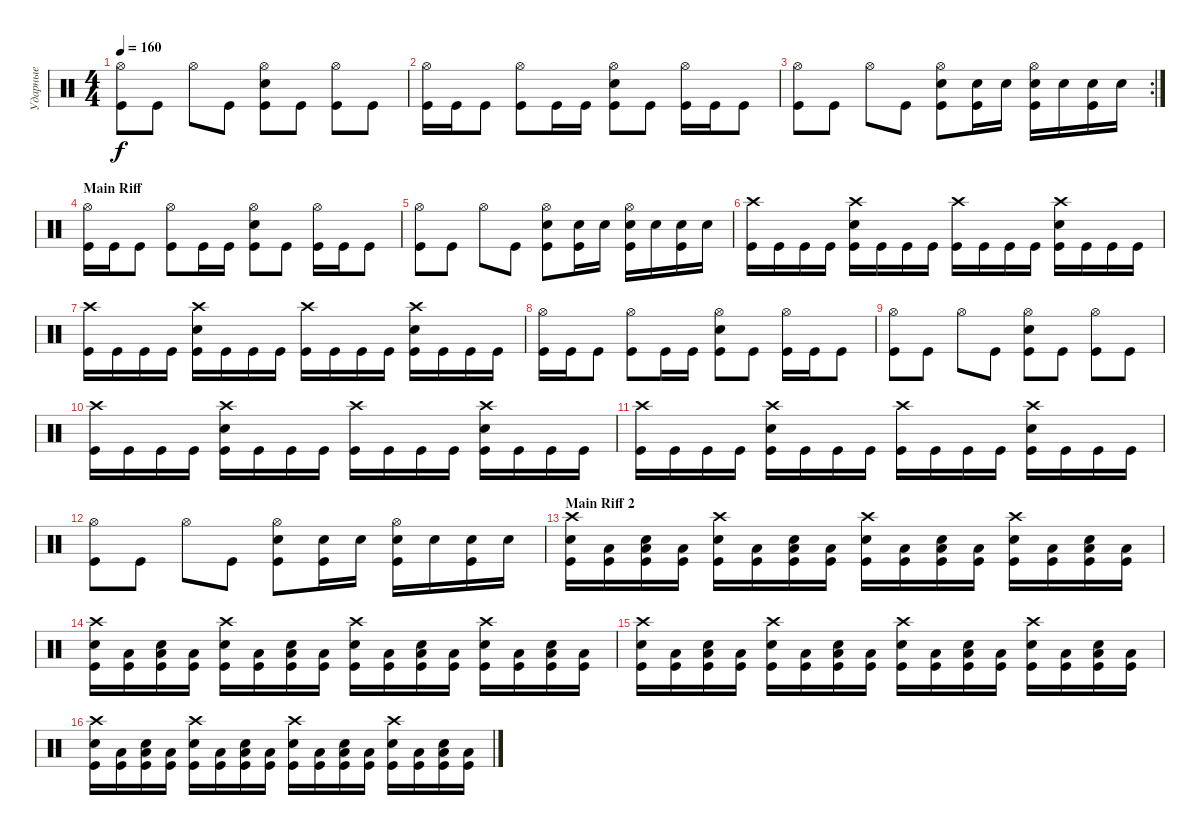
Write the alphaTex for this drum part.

\track ("Ударные" "Ударные") {instrument percussion}
\staff {score}
\articulation defaults
\ts (4 4)
\tempo 160
\clef neutral
\ks c
("Hi-Hat (open)" "Kick (hit)").8{dy f} "Kick (hit)".8 "Hi-Hat (open)".8 "Kick (hit)".8 ("Hi-Hat (open)" "Snare (hit) 2" "Kick (hit)").8 "Kick (hit)".8 ("Hi-Hat (open)" "Kick (hit)").8 "Kick (hit)".8 |
("Hi-Hat (open)" "Kick (hit)").16 "Kick (hit)".16 "Kick (hit)".8 ("Hi-Hat (open)" "Kick (hit)").8 "Kick (hit)".16 "Kick (hit)".16 ("Hi-Hat (open)" "Snare (hit) 2" "Kick (hit)").8 "Kick (hit)".8 ("Hi-Hat (open)" "Kick (hit)").16 "Kick (hit)".16 "Kick (hit)".8 |
\rc 2
("Hi-Hat (open)" "Kick (hit)").8 "Kick (hit)".8 "Hi-Hat (open)".8 "Kick (hit)".8 ("Hi-Hat (open)" "Snare (hit) 2" "Kick (hit)").8 ("Snare (hit) 2" "Kick (hit)").16 "Snare (hit) 2".16 ("Hi-Hat (open)" "Snare (hit) 2" "Kick (hit)").16 "Snare (hit) 2".16 ("Snare (hit) 2" "Kick (hit)").16 "Snare (hit) 2".16 |
\section ("" "Main Riff")
("Hi-Hat (open)" "Kick (hit)").16 "Kick (hit)".16 "Kick (hit)".8 ("Hi-Hat (open)" "Kick (hit)").8 "Kick (hit)".16 "Kick (hit)".16 ("Hi-Hat (open)" "Snare (hit) 2" "Kick (hit)").8 "Kick (hit)".8 ("Hi-Hat (open)" "Kick (hit)").16 "Kick (hit)".16 "Kick (hit)".8 |
("Hi-Hat (open)" "Kick (hit)").8 "Kick (hit)".8 "Hi-Hat (open)".8 "Kick (hit)".8 ("Hi-Hat (open)" "Snare (hit) 2" "Kick (hit)").8 ("Snare (hit) 2" "Kick (hit)").16 "Snare (hit) 2".16 ("Hi-Hat (open)" "Snare (hit) 2" "Kick (hit)").16 "Snare (hit) 2".16 ("Snare (hit) 2" "Kick (hit)").16 "Snare (hit) 2".16 |
("Crash high (hit)" "Kick (hit)").16 "Kick (hit)".16 "Kick (hit)".16 "Kick (hit)".16 ("Crash high (hit)" "Snare (hit) 2" "Kick (hit)").16 "Kick (hit)".16 "Kick (hit)".16 "Kick (hit)".16 ("Crash high (hit)" "Kick (hit)").16 "Kick (hit)".16 "Kick (hit)".16 "Kick (hit)".16 ("Crash high (hit)" "Snare (hit) 2" "Kick (hit)").16 "Kick (hit)".16 "Kick (hit)".16 "Kick (hit)".16 |
("Crash high (hit)" "Kick (hit)").16 "Kick (hit)".16 "Kick (hit)".16 "Kick (hit)".16 ("Crash high (hit)" "Snare (hit) 2" "Kick (hit)").16 "Kick (hit)".16 "Kick (hit)".16 "Kick (hit)".16 ("Crash high (hit)" "Kick (hit)").16 "Kick (hit)".16 "Kick (hit)".16 "Kick (hit)".16 ("Crash high (hit)" "Snare (hit) 2" "Kick (hit)").16 "Kick (hit)".16 "Kick (hit)".16 "Kick (hit)".16 |
("Hi-Hat (open)" "Kick (hit)").16 "Kick (hit)".16 "Kick (hit)".8 ("Hi-Hat (open)" "Kick (hit)").8 "Kick (hit)".16 "Kick (hit)".16 ("Hi-Hat (open)" "Snare (hit) 2" "Kick (hit)").8 "Kick (hit)".8 ("Hi-Hat (open)" "Kick (hit)").16 "Kick (hit)".16 "Kick (hit)".8 |
("Hi-Hat (open)" "Kick (hit)").8 "Kick (hit)".8 "Hi-Hat (open)".8 "Kick (hit)".8 ("Hi-Hat (open)" "Snare (hit) 2" "Kick (hit)").8 "Kick (hit)".8 ("Hi-Hat (open)" "Kick (hit)").8 "Kick (hit)".8 |
("Crash high (hit)" "Kick (hit)").16 "Kick (hit)".16 "Kick (hit)".16 "Kick (hit)".16 ("Crash high (hit)" "Snare (hit) 2" "Kick (hit)").16 "Kick (hit)".16 "Kick (hit)".16 "Kick (hit)".16 ("Crash high (hit)" "Kick (hit)").16 "Kick (hit)".16 "Kick (hit)".16 "Kick (hit)".16 ("Crash high (hit)" "Snare (hit) 2" "Kick (hit)").16 "Kick (hit)".16 "Kick (hit)".16 "Kick (hit)".16 |
("Crash high (hit)" "Kick (hit)").16 "Kick (hit)".16 "Kick (hit)".16 "Kick (hit)".16 ("Crash high (hit)" "Snare (hit) 2" "Kick (hit)").16 "Kick (hit)".16 "Kick (hit)".16 "Kick (hit)".16 ("Crash high (hit)" "Kick (hit)").16 "Kick (hit)".16 "Kick (hit)".16 "Kick (hit)".16 ("Crash high (hit)" "Snare (hit) 2" "Kick (hit)").16 "Kick (hit)".16 "Kick (hit)".16 "Kick (hit)".16 |
("Hi-Hat (open)" "Kick (hit)").8 "Kick (hit)".8 "Hi-Hat (open)".8 "Kick (hit)".8 ("Hi-Hat (open)" "Snare (hit) 2" "Kick (hit)").8 ("Snare (hit) 2" "Kick (hit)").16 "Snare (hit) 2".16 ("Hi-Hat (open)" "Snare (hit) 2" "Kick (hit)").16 "Snare (hit) 2".16 ("Snare (hit) 2" "Kick (hit)").16 "Snare (hit) 2".16 |
\section ("" "Main Riff 2")
("Crash high (hit)" "Snare (hit) 2" "Kick (hit)").16 ("Low Tom (hit)" "Kick (hit)").16 ("Low Tom (hit)" "Snare (hit) 2" "Kick (hit)").16 ("Low Tom (hit)" "Kick (hit)").16 ("Crash high (hit)" "Snare (hit) 2" "Kick (hit)").16 ("Low Tom (hit)" "Kick (hit)").16 ("Low Tom (hit)" "Snare (hit) 2" "Kick (hit)").16 ("Low Tom (hit)" "Kick (hit)").16 ("Crash high (hit)" "Snare (hit) 2" "Kick (hit)").16 ("Low Tom (hit)" "Kick (hit)").16 ("Low Tom (hit)" "Snare (hit) 2" "Kick (hit)").16 ("Low Tom (hit)" "Kick (hit)").16 ("Crash high (hit)" "Snare (hit) 2" "Kick (hit)").16 ("Low Tom (hit)" "Kick (hit)").16 ("Low Tom (hit)" "Snare (hit) 2" "Kick (hit)").16 ("Low Tom (hit)" "Kick (hit)").16 |
("Crash high (hit)" "Snare (hit) 2" "Kick (hit)").16 ("Low Tom (hit)" "Kick (hit)").16 ("Low Tom (hit)" "Snare (hit) 2" "Kick (hit)").16 ("Low Tom (hit)" "Kick (hit)").16 ("Crash high (hit)" "Snare (hit) 2" "Kick (hit)").16 ("Low Tom (hit)" "Kick (hit)").16 ("Low Tom (hit)" "Snare (hit) 2" "Kick (hit)").16 ("Low Tom (hit)" "Kick (hit)").16 ("Crash high (hit)" "Snare (hit) 2" "Kick (hit)").16 ("Low Tom (hit)" "Kick (hit)").16 ("Low Tom (hit)" "Snare (hit) 2" "Kick (hit)").16 ("Low Tom (hit)" "Kick (hit)").16 ("Crash high (hit)" "Snare (hit) 2" "Kick (hit)").16 ("Low Tom (hit)" "Kick (hit)").16 ("Low Tom (hit)" "Snare (hit) 2" "Kick (hit)").16 ("Low Tom (hit)" "Kick (hit)").16 |
("Crash high (hit)" "Snare (hit) 2" "Kick (hit)").16 ("Low Tom (hit)" "Kick (hit)").16 ("Low Tom (hit)" "Snare (hit) 2" "Kick (hit)").16 ("Low Tom (hit)" "Kick (hit)").16 ("Crash high (hit)" "Snare (hit) 2" "Kick (hit)").16 ("Low Tom (hit)" "Kick (hit)").16 ("Low Tom (hit)" "Snare (hit) 2" "Kick (hit)").16 ("Low Tom (hit)" "Kick (hit)").16 ("Crash high (hit)" "Snare (hit) 2" "Kick (hit)").16 ("Low Tom (hit)" "Kick (hit)").16 ("Low Tom (hit)" "Snare (hit) 2" "Kick (hit)").16 ("Low Tom (hit)" "Kick (hit)").16 ("Crash high (hit)" "Snare (hit) 2" "Kick (hit)").16 ("Low Tom (hit)" "Kick (hit)").16 ("Low Tom (hit)" "Snare (hit) 2" "Kick (hit)").16 ("Low Tom (hit)" "Kick (hit)").16 |
("Crash high (hit)" "Snare (hit) 2" "Kick (hit)").16 ("Low Tom (hit)" "Kick (hit)").16 ("Low Tom (hit)" "Snare (hit) 2" "Kick (hit)").16 ("Low Tom (hit)" "Kick (hit)").16 ("Crash high (hit)" "Snare (hit) 2" "Kick (hit)").16 ("Low Tom (hit)" "Kick (hit)").16 ("Low Tom (hit)" "Snare (hit) 2" "Kick (hit)").16 ("Low Tom (hit)" "Kick (hit)").16 ("Crash high (hit)" "Snare (hit) 2" "Kick (hit)").16 ("Low Tom (hit)" "Kick (hit)").16 ("Low Tom (hit)" "Snare (hit) 2" "Kick (hit)").16 ("Low Tom (hit)" "Kick (hit)").16 ("Crash high (hit)" "Snare (hit) 2" "Kick (hit)").16 ("Low Tom (hit)" "Kick (hit)").16 ("Low Tom (hit)" "Snare (hit) 2" "Kick (hit)").16 ("Low Tom (hit)" "Kick (hit)").16
